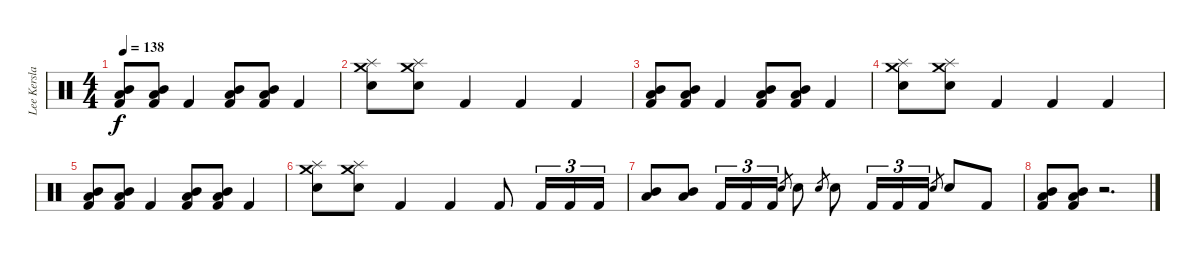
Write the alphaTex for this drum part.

\track ("Lee Kerslake" "Lee Kersla") {instrument percussion}
\staff {score}
\articulation defaults
\ts (4 4)
\tempo 138
\clef neutral
\ks c
("Mid Tom (hit)" "Low Tom (hit)" "Kick (hit) 2").8{dy f} ("Mid Tom (hit)" "Low Tom (hit)" "Kick (hit) 2").8 "Kick (hit) 2".4 ("Mid Tom (hit)" "Low Tom (hit)" "Kick (hit) 2").8 ("Mid Tom (hit)" "Low Tom (hit)" "Kick (hit) 2").8 "Kick (hit) 2".4 |
("Snare (hit) 2" "Crash medium (hit)" "Splash (hit)").8 ("Snare (hit) 2" "Crash medium (hit)" "Splash (hit)").8 "Kick (hit) 2".4 "Kick (hit) 2".4 "Kick (hit) 2".4 |
("Mid Tom (hit)" "Low Tom (hit)" "Kick (hit) 2").8 ("Mid Tom (hit)" "Low Tom (hit)" "Kick (hit) 2").8 "Kick (hit) 2".4 ("Mid Tom (hit)" "Low Tom (hit)" "Kick (hit) 2").8 ("Mid Tom (hit)" "Low Tom (hit)" "Kick (hit) 2").8 "Kick (hit) 2".4 |
("Snare (hit) 2" "Crash medium (hit)" "Splash (hit)").8 ("Snare (hit) 2" "Crash medium (hit)" "Splash (hit)").8 "Kick (hit) 2".4 "Kick (hit) 2".4 "Kick (hit) 2".4 |
("Mid Tom (hit)" "Low Tom (hit)" "Kick (hit) 2").8 ("Mid Tom (hit)" "Low Tom (hit)" "Kick (hit) 2").8 "Kick (hit) 2".4 ("Mid Tom (hit)" "Low Tom (hit)" "Kick (hit) 2").8 ("Mid Tom (hit)" "Low Tom (hit)" "Kick (hit) 2").8 "Kick (hit) 2".4 |
("Snare (hit) 2" "Crash medium (hit)" "Splash (hit)").8 ("Snare (hit) 2" "Crash medium (hit)" "Splash (hit)").8 "Kick (hit) 2".4 "Kick (hit) 2".4 "Kick (hit) 2".8 "Kick (hit) 2".16{tu (3 2)} "Kick (hit) 2".16{tu (3 2)} "Kick (hit) 2".16{tu (3 2)} |
("Mid Tom (hit)" "Low Tom (hit)").8 ("Mid Tom (hit)" "Low Tom (hit)").8 "Kick (hit) 2".16{tu (3 2)} "Kick (hit) 2".16{tu (3 2)} "Kick (hit) 2".16{tu (3 2)} "Snare (hit) 2".8{gr} "Snare (hit) 2".8 "Snare (hit) 2".8{gr} "Snare (hit) 2".8 "Kick (hit) 2".16{tu (3 2)} "Kick (hit) 2".16{tu (3 2)} "Kick (hit) 2".16{tu (3 2)} "Snare (hit) 2".8{gr} "Snare (hit) 2".8 "Kick (hit) 2".8 |
("Mid Tom (hit)" "Low Tom (hit)" "Kick (hit) 2").8 ("Mid Tom (hit)" "Low Tom (hit)" "Kick (hit) 2").8 r.2{d}
